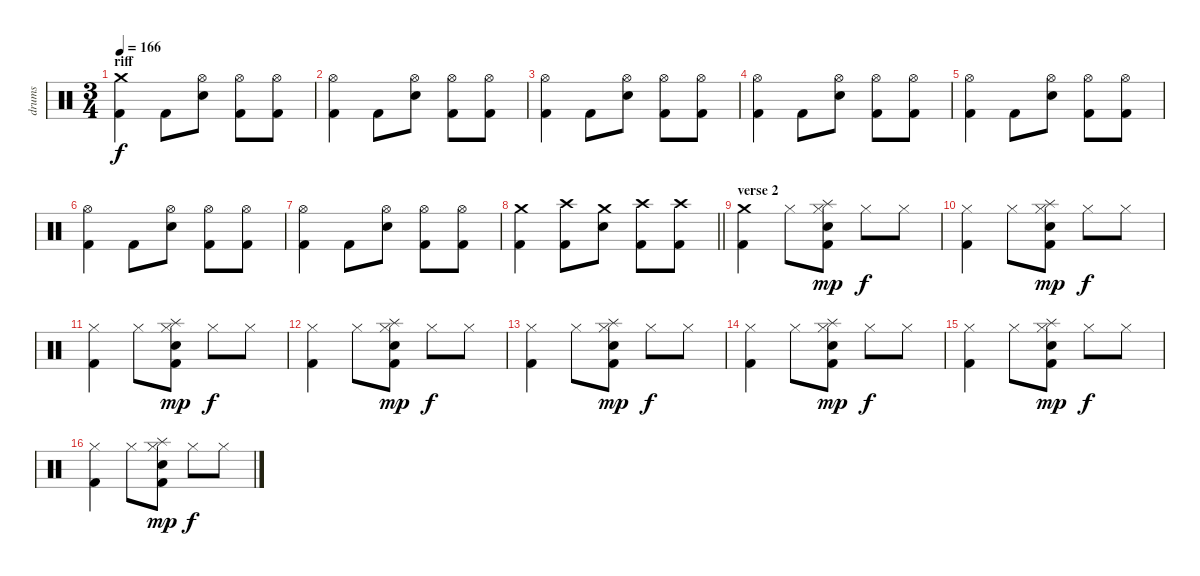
\track ("drums" "drums") {instrument percussion}
\staff {score}
\articulation defaults
\ts (3 4)
\section ("" "riff")
\tempo 166
\clef neutral
\ks c
("Crash medium (hit)" "Kick (hit) 2").4{dy f} "Kick (hit) 2".8 ("Hi-Hat (open)" "Electric Snare (hit)").8 ("Hi-Hat (open)" "Kick (hit) 2").8 ("Hi-Hat (open)" "Kick (hit) 2").8 |
("Hi-Hat (open)" "Kick (hit) 2").4 "Kick (hit) 2".8 ("Hi-Hat (open)" "Electric Snare (hit)").8 ("Hi-Hat (open)" "Kick (hit) 2").8 ("Hi-Hat (open)" "Kick (hit) 2").8 |
("Hi-Hat (open)" "Kick (hit) 2").4 "Kick (hit) 2".8 ("Hi-Hat (open)" "Electric Snare (hit)").8 ("Hi-Hat (open)" "Kick (hit) 2").8 ("Hi-Hat (open)" "Kick (hit) 2").8 |
("Hi-Hat (open)" "Kick (hit) 2").4 "Kick (hit) 2".8 ("Hi-Hat (open)" "Electric Snare (hit)").8 ("Hi-Hat (open)" "Kick (hit) 2").8 ("Hi-Hat (open)" "Kick (hit) 2").8 |
("Hi-Hat (open)" "Kick (hit) 2").4 "Kick (hit) 2".8 ("Hi-Hat (open)" "Electric Snare (hit)").8 ("Hi-Hat (open)" "Kick (hit) 2").8 ("Hi-Hat (open)" "Kick (hit) 2").8 |
("Hi-Hat (open)" "Kick (hit) 2").4 "Kick (hit) 2".8 ("Hi-Hat (open)" "Electric Snare (hit)").8 ("Hi-Hat (open)" "Kick (hit) 2").8 ("Hi-Hat (open)" "Kick (hit) 2").8 |
("Hi-Hat (open)" "Kick (hit) 2").4 "Kick (hit) 2".8 ("Hi-Hat (open)" "Electric Snare (hit)").8 ("Hi-Hat (open)" "Kick (hit) 2").8 ("Hi-Hat (open)" "Kick (hit) 2").8 |
\barLineRight lightlight
("Crash medium (hit)" "Kick (hit) 2").4 ("Crash high (hit)" "Kick (hit) 2").8 ("Crash medium (hit)" "Electric Snare (hit)").8 ("Crash high (hit)" "Kick (hit) 2").8 ("Crash high (hit)" "Kick (hit) 2").8 |
\section ("" "verse 2")
("Crash medium (hit)" "Kick (hit) 2").4 "Hi-Hat (closed)".8 ("Splash (hit)" "Hi-Hat (closed)" "Electric Snare (hit)" "Kick (hit) 2").8{dy mp} "Hi-Hat (closed)".8{dy f} "Hi-Hat (closed)".8 |
("Hi-Hat (closed)" "Kick (hit) 2").4 "Hi-Hat (closed)".8 ("Splash (hit)" "Hi-Hat (closed)" "Electric Snare (hit)" "Kick (hit) 2").8{dy mp} "Hi-Hat (closed)".8{dy f} "Hi-Hat (closed)".8 |
("Hi-Hat (closed)" "Kick (hit) 2").4 "Hi-Hat (closed)".8 ("Splash (hit)" "Hi-Hat (closed)" "Electric Snare (hit)" "Kick (hit) 2").8{dy mp} "Hi-Hat (closed)".8{dy f} "Hi-Hat (closed)".8 |
("Hi-Hat (closed)" "Kick (hit) 2").4 "Hi-Hat (closed)".8 ("Splash (hit)" "Hi-Hat (closed)" "Electric Snare (hit)" "Kick (hit) 2").8{dy mp} "Hi-Hat (closed)".8{dy f} "Hi-Hat (closed)".8 |
("Hi-Hat (closed)" "Kick (hit) 2").4 "Hi-Hat (closed)".8 ("Splash (hit)" "Hi-Hat (closed)" "Electric Snare (hit)" "Kick (hit) 2").8{dy mp} "Hi-Hat (closed)".8{dy f} "Hi-Hat (closed)".8 |
("Hi-Hat (closed)" "Kick (hit) 2").4 "Hi-Hat (closed)".8 ("Splash (hit)" "Hi-Hat (closed)" "Electric Snare (hit)" "Kick (hit) 2").8{dy mp} "Hi-Hat (closed)".8{dy f} "Hi-Hat (closed)".8 |
("Hi-Hat (closed)" "Kick (hit) 2").4 "Hi-Hat (closed)".8 ("Splash (hit)" "Hi-Hat (closed)" "Electric Snare (hit)" "Kick (hit) 2").8{dy mp} "Hi-Hat (closed)".8{dy f} "Hi-Hat (closed)".8 |
("Hi-Hat (closed)" "Kick (hit) 2").4 "Hi-Hat (closed)".8 ("Splash (hit)" "Hi-Hat (closed)" "Electric Snare (hit)" "Kick (hit) 2").8{dy mp} "Hi-Hat (closed)".8{dy f} "Hi-Hat (closed)".8
